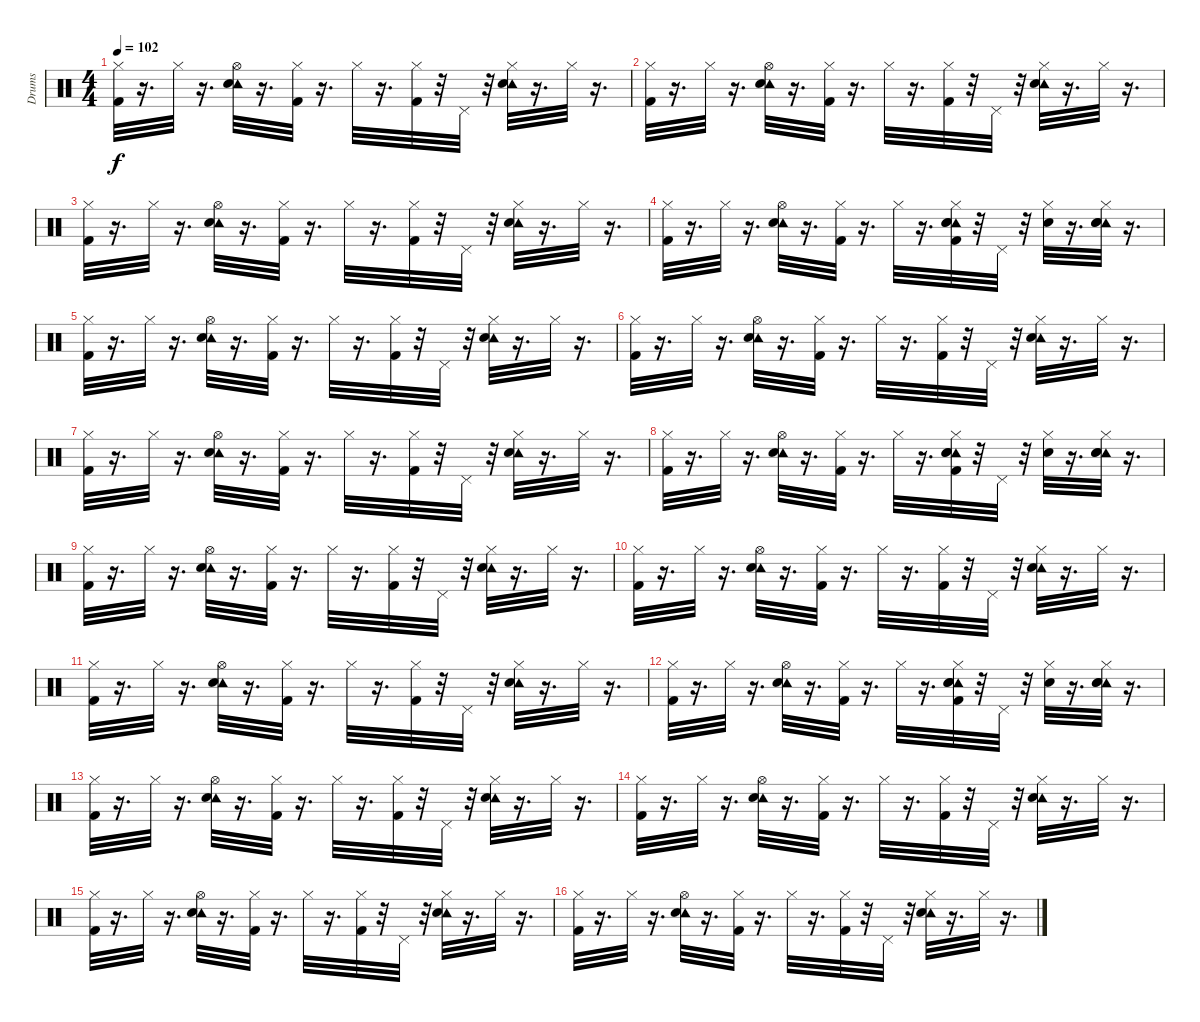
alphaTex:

\track ("Drums" "Drums") {instrument percussion}
\staff {score}
\articulation defaults
\ts (4 4)
\tempo 102
\clef neutral
\ks c
("Hi-Hat (closed)" "Kick (hit) 2").32{dy f} r.16{d} "Hi-Hat (closed)".32 r.16{d} ("Tambourine (hit)" "Hi-Hat (open)" "Electric Snare (hit)").32 r.16{d} ("Hi-Hat (closed)" "Kick (hit) 2").32 r.16{d} "Hi-Hat (closed)".32 r.16{d} ("Hi-Hat (closed)" "Kick (hit) 2").32 r.32 "Pedal Hi-Hat (hit)".32 r.32 ("Tambourine (hit)" "Hi-Hat (closed)" "Electric Snare (hit)").32 r.16{d} "Hi-Hat (closed)".32 r.16{d} |
("Hi-Hat (closed)" "Kick (hit) 2").32 r.16{d} "Hi-Hat (closed)".32 r.16{d} ("Tambourine (hit)" "Hi-Hat (open)" "Electric Snare (hit)").32 r.16{d} ("Hi-Hat (closed)" "Kick (hit) 2").32 r.16{d} "Hi-Hat (closed)".32 r.16{d} ("Hi-Hat (closed)" "Kick (hit) 2").32 r.32 "Pedal Hi-Hat (hit)".32 r.32 ("Tambourine (hit)" "Hi-Hat (closed)" "Electric Snare (hit)").32 r.16{d} "Hi-Hat (closed)".32 r.16{d} |
("Hi-Hat (closed)" "Kick (hit) 2").32 r.16{d} "Hi-Hat (closed)".32 r.16{d} ("Tambourine (hit)" "Hi-Hat (open)" "Electric Snare (hit)").32 r.16{d} ("Hi-Hat (closed)" "Kick (hit) 2").32 r.16{d} "Hi-Hat (closed)".32 r.16{d} ("Hi-Hat (closed)" "Kick (hit) 2").32 r.32 "Pedal Hi-Hat (hit)".32 r.32 ("Tambourine (hit)" "Hi-Hat (closed)" "Electric Snare (hit)").32 r.16{d} "Hi-Hat (closed)".32 r.16{d} |
("Hi-Hat (closed)" "Kick (hit) 2").32 r.16{d} "Hi-Hat (closed)".32 r.16{d} ("Tambourine (hit)" "Hi-Hat (open)" "Electric Snare (hit)").32 r.16{d} ("Hi-Hat (closed)" "Kick (hit) 2").32 r.16{d} "Hi-Hat (closed)".32 r.16{d} ("Tambourine (hit)" "Electric Snare (hit)" "Snare (hit) 2" "Hi-Hat (closed)" "Kick (hit) 2").32 r.32 "Pedal Hi-Hat (hit)".32 r.32 ("Hi-Hat (closed)" "Electric Snare (hit)").32 r.16{d} ("Tambourine (hit)" "Electric Snare (hit)" "Snare (hit) 2" "Hi-Hat (closed)").32 r.16{d} |
("Hi-Hat (closed)" "Kick (hit) 2").32 r.16{d} "Hi-Hat (closed)".32 r.16{d} ("Tambourine (hit)" "Hi-Hat (open)" "Electric Snare (hit)").32 r.16{d} ("Hi-Hat (closed)" "Kick (hit) 2").32 r.16{d} "Hi-Hat (closed)".32 r.16{d} ("Hi-Hat (closed)" "Kick (hit) 2").32 r.32 "Pedal Hi-Hat (hit)".32 r.32 ("Tambourine (hit)" "Hi-Hat (closed)" "Electric Snare (hit)").32 r.16{d} "Hi-Hat (closed)".32 r.16{d} |
("Hi-Hat (closed)" "Kick (hit) 2").32 r.16{d} "Hi-Hat (closed)".32 r.16{d} ("Tambourine (hit)" "Hi-Hat (open)" "Electric Snare (hit)").32 r.16{d} ("Hi-Hat (closed)" "Kick (hit) 2").32 r.16{d} "Hi-Hat (closed)".32 r.16{d} ("Hi-Hat (closed)" "Kick (hit) 2").32 r.32 "Pedal Hi-Hat (hit)".32 r.32 ("Tambourine (hit)" "Hi-Hat (closed)" "Electric Snare (hit)").32 r.16{d} "Hi-Hat (closed)".32 r.16{d} |
("Hi-Hat (closed)" "Kick (hit) 2").32 r.16{d} "Hi-Hat (closed)".32 r.16{d} ("Tambourine (hit)" "Hi-Hat (open)" "Electric Snare (hit)").32 r.16{d} ("Hi-Hat (closed)" "Kick (hit) 2").32 r.16{d} "Hi-Hat (closed)".32 r.16{d} ("Hi-Hat (closed)" "Kick (hit) 2").32 r.32 "Pedal Hi-Hat (hit)".32 r.32 ("Tambourine (hit)" "Hi-Hat (closed)" "Electric Snare (hit)").32 r.16{d} "Hi-Hat (closed)".32 r.16{d} |
("Hi-Hat (closed)" "Kick (hit) 2").32 r.16{d} "Hi-Hat (closed)".32 r.16{d} ("Tambourine (hit)" "Hi-Hat (open)" "Electric Snare (hit)").32 r.16{d} ("Hi-Hat (closed)" "Kick (hit) 2").32 r.16{d} "Hi-Hat (closed)".32 r.16{d} ("Tambourine (hit)" "Electric Snare (hit)" "Snare (hit) 2" "Hi-Hat (closed)" "Kick (hit) 2").32 r.32 "Pedal Hi-Hat (hit)".32 r.32 ("Hi-Hat (closed)" "Electric Snare (hit)").32 r.16{d} ("Tambourine (hit)" "Electric Snare (hit)" "Snare (hit) 2" "Hi-Hat (closed)").32 r.16{d} |
("Hi-Hat (closed)" "Kick (hit) 2").32 r.16{d} "Hi-Hat (closed)".32 r.16{d} ("Tambourine (hit)" "Hi-Hat (open)" "Electric Snare (hit)").32 r.16{d} ("Hi-Hat (closed)" "Kick (hit) 2").32 r.16{d} "Hi-Hat (closed)".32 r.16{d} ("Hi-Hat (closed)" "Kick (hit) 2").32 r.32 "Pedal Hi-Hat (hit)".32 r.32 ("Tambourine (hit)" "Hi-Hat (closed)" "Electric Snare (hit)").32 r.16{d} "Hi-Hat (closed)".32 r.16{d} |
("Hi-Hat (closed)" "Kick (hit) 2").32 r.16{d} "Hi-Hat (closed)".32 r.16{d} ("Tambourine (hit)" "Hi-Hat (open)" "Electric Snare (hit)").32 r.16{d} ("Hi-Hat (closed)" "Kick (hit) 2").32 r.16{d} "Hi-Hat (closed)".32 r.16{d} ("Hi-Hat (closed)" "Kick (hit) 2").32 r.32 "Pedal Hi-Hat (hit)".32 r.32 ("Tambourine (hit)" "Hi-Hat (closed)" "Electric Snare (hit)").32 r.16{d} "Hi-Hat (closed)".32 r.16{d} |
("Hi-Hat (closed)" "Kick (hit) 2").32 r.16{d} "Hi-Hat (closed)".32 r.16{d} ("Tambourine (hit)" "Hi-Hat (open)" "Electric Snare (hit)").32 r.16{d} ("Hi-Hat (closed)" "Kick (hit) 2").32 r.16{d} "Hi-Hat (closed)".32 r.16{d} ("Hi-Hat (closed)" "Kick (hit) 2").32 r.32 "Pedal Hi-Hat (hit)".32 r.32 ("Tambourine (hit)" "Hi-Hat (closed)" "Electric Snare (hit)").32 r.16{d} "Hi-Hat (closed)".32 r.16{d} |
("Hi-Hat (closed)" "Kick (hit) 2").32 r.16{d} "Hi-Hat (closed)".32 r.16{d} ("Tambourine (hit)" "Hi-Hat (open)" "Electric Snare (hit)").32 r.16{d} ("Hi-Hat (closed)" "Kick (hit) 2").32 r.16{d} "Hi-Hat (closed)".32 r.16{d} ("Tambourine (hit)" "Electric Snare (hit)" "Snare (hit) 2" "Hi-Hat (closed)" "Kick (hit) 2").32 r.32 "Pedal Hi-Hat (hit)".32 r.32 ("Hi-Hat (closed)" "Electric Snare (hit)").32 r.16{d} ("Tambourine (hit)" "Electric Snare (hit)" "Snare (hit) 2" "Hi-Hat (closed)").32 r.16{d} |
("Hi-Hat (closed)" "Kick (hit) 2").32 r.16{d} "Hi-Hat (closed)".32 r.16{d} ("Tambourine (hit)" "Hi-Hat (open)" "Electric Snare (hit)").32 r.16{d} ("Hi-Hat (closed)" "Kick (hit) 2").32 r.16{d} "Hi-Hat (closed)".32 r.16{d} ("Hi-Hat (closed)" "Kick (hit) 2").32 r.32 "Pedal Hi-Hat (hit)".32 r.32 ("Tambourine (hit)" "Hi-Hat (closed)" "Electric Snare (hit)").32 r.16{d} "Hi-Hat (closed)".32 r.16{d} |
("Hi-Hat (closed)" "Kick (hit) 2").32 r.16{d} "Hi-Hat (closed)".32 r.16{d} ("Tambourine (hit)" "Hi-Hat (open)" "Electric Snare (hit)").32 r.16{d} ("Hi-Hat (closed)" "Kick (hit) 2").32 r.16{d} "Hi-Hat (closed)".32 r.16{d} ("Hi-Hat (closed)" "Kick (hit) 2").32 r.32 "Pedal Hi-Hat (hit)".32 r.32 ("Tambourine (hit)" "Hi-Hat (closed)" "Electric Snare (hit)").32 r.16{d} "Hi-Hat (closed)".32 r.16{d} |
("Hi-Hat (closed)" "Kick (hit) 2").32 r.16{d} "Hi-Hat (closed)".32 r.16{d} ("Tambourine (hit)" "Hi-Hat (open)" "Electric Snare (hit)").32 r.16{d} ("Hi-Hat (closed)" "Kick (hit) 2").32 r.16{d} "Hi-Hat (closed)".32 r.16{d} ("Hi-Hat (closed)" "Kick (hit) 2").32 r.32 "Pedal Hi-Hat (hit)".32 r.32 ("Tambourine (hit)" "Hi-Hat (closed)" "Electric Snare (hit)").32 r.16{d} "Hi-Hat (closed)".32 r.16{d} |
("Hi-Hat (closed)" "Kick (hit) 2").32 r.16{d} "Hi-Hat (closed)".32 r.16{d} ("Tambourine (hit)" "Hi-Hat (open)" "Electric Snare (hit)").32 r.16{d} ("Hi-Hat (closed)" "Kick (hit) 2").32 r.16{d} "Hi-Hat (closed)".32 r.16{d} ("Hi-Hat (closed)" "Kick (hit) 2").32 r.32 "Pedal Hi-Hat (hit)".32 r.32 ("Tambourine (hit)" "Hi-Hat (closed)" "Electric Snare (hit)").32 r.16{d} "Hi-Hat (closed)".32 r.16{d}
